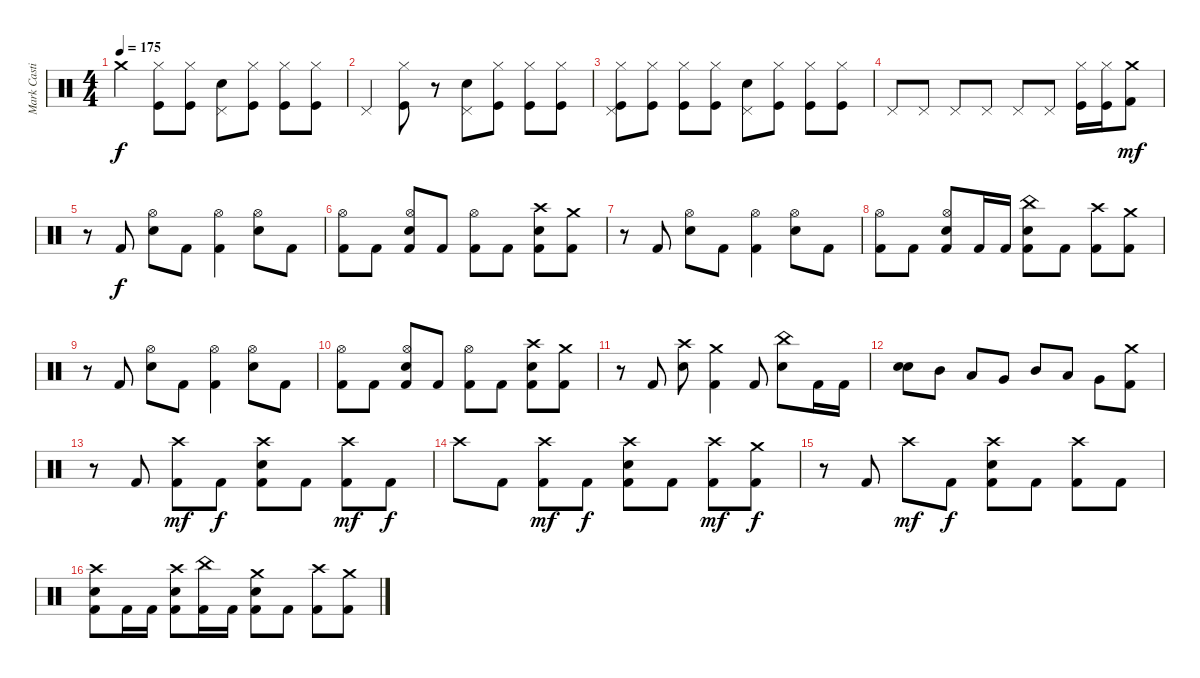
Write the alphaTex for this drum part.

\track ("Mark Castillo" "Mark Casti") {instrument percussion}
\staff {score}
\articulation defaults
\ts (4 4)
\tempo 175
\clef neutral
\ks c "Crash medium (hit)".4{dy f}
("Hi-Hat (closed)" "Kick (hit)").8 ("Hi-Hat (closed)" "Kick (hit)").8 ("Pedal Hi-Hat (hit)" "Snare (hit) 2").8 ("Hi-Hat (closed)" "Kick (hit)").8 ("Hi-Hat (closed)" "Kick (hit)").8 ("Hi-Hat (closed)" "Kick (hit)").8 |
"Pedal Hi-Hat (hit)".4 ("Hi-Hat (closed)" "Kick (hit)").8 r.8 ("Pedal Hi-Hat (hit)" "Snare (hit) 2").8 ("Hi-Hat (closed)" "Kick (hit)").8 ("Hi-Hat (closed)" "Kick (hit)").8 ("Hi-Hat (closed)" "Kick (hit)").8 |
("Pedal Hi-Hat (hit)" "Hi-Hat (closed)" "Kick (hit)").8 ("Hi-Hat (closed)" "Kick (hit)").8 ("Hi-Hat (closed)" "Kick (hit)").8 ("Hi-Hat (closed)" "Kick (hit)").8 ("Pedal Hi-Hat (hit)" "Snare (hit) 2").8 ("Hi-Hat (closed)" "Kick (hit)").8 ("Hi-Hat (closed)" "Kick (hit)").8 ("Hi-Hat (closed)" "Kick (hit)").8 |
"Pedal Hi-Hat (hit)".8 "Pedal Hi-Hat (hit)".8 "Pedal Hi-Hat (hit)".8 "Pedal Hi-Hat (hit)".8 "Pedal Hi-Hat (hit)".8 "Pedal Hi-Hat (hit)".8 ("Hi-Hat (closed)" "Kick (hit)").16 ("Hi-Hat (closed)" "Kick (hit)").16 ("Crash medium (hit)" "Kick (hit) 2").8{dy mf} |
r.8 "Kick (hit) 2".8{dy f} ("Hi-Hat (open)" "Electric Snare (hit)").8 "Kick (hit) 2".8 ("Hi-Hat (open)" "Kick (hit) 2").4 ("Hi-Hat (open)" "Electric Snare (hit)").8 "Kick (hit) 2".8 |
("Hi-Hat (open)" "Kick (hit) 2").8 "Kick (hit) 2".8 ("Hi-Hat (open)" "Electric Snare (hit)" "Kick (hit) 2").8 "Kick (hit) 2".8 ("Hi-Hat (open)" "Kick (hit) 2").8 "Kick (hit) 2".8 ("Crash high (hit)" "Electric Snare (hit)" "Kick (hit) 2").8 ("Crash medium (hit)" "Kick (hit) 2").8 |
r.8 "Kick (hit) 2".8 ("Hi-Hat (open)" "Electric Snare (hit)").8 "Kick (hit) 2".8 ("Hi-Hat (open)" "Kick (hit) 2").4 ("Hi-Hat (open)" "Electric Snare (hit)").8 "Kick (hit) 2".8 |
("Hi-Hat (open)" "Kick (hit) 2").8 "Kick (hit) 2".8 ("Hi-Hat (open)" "Electric Snare (hit)" "Kick (hit) 2").8 "Kick (hit) 2".16 "Kick (hit) 2".16 ("China (hit)" "Electric Snare (hit)" "Kick (hit) 2").8 "Kick (hit) 2".8 ("Crash high (hit)" "Kick (hit) 2").8 ("Crash medium (hit)" "Kick (hit) 2").8 |
r.8 "Kick (hit) 2".8 ("Hi-Hat (open)" "Electric Snare (hit)").8 "Kick (hit) 2".8 ("Hi-Hat (open)" "Kick (hit) 2").4 ("Hi-Hat (open)" "Electric Snare (hit)").8 "Kick (hit) 2".8 |
("Hi-Hat (open)" "Kick (hit) 2").8 "Kick (hit) 2".8 ("Hi-Hat (open)" "Electric Snare (hit)" "Kick (hit) 2").8 "Kick (hit) 2".8 ("Hi-Hat (open)" "Kick (hit) 2").8 "Kick (hit) 2".8 ("Crash high (hit)" "Electric Snare (hit)" "Kick (hit) 2").8 ("Crash medium (hit)" "Kick (hit) 2").8 |
r.8 "Kick (hit) 2".8 ("Crash high (hit)" "Electric Snare (hit)").8 ("Crash medium (hit)" "Kick (hit) 2").4 "Kick (hit) 2".8 ("China (hit)" "Electric Snare (hit)").8 "Kick (hit) 2".16 "Kick (hit) 2".16 |
("Electric Snare (hit)" "Electric Snare (hit)").8{bd 120} "Mid Tom (hit)".8 "Low Tom (hit)".8 "Very Low Tom (hit)".8 "Mid Tom (hit)".8 "Low Tom (hit)".8 "Very Low Tom (hit)".8 ("Crash medium (hit)" "Kick (hit) 2").8 |
r.8 "Kick (hit) 2".8 ("Crash high (hit)" "Kick (hit) 2").8{dy mf} "Kick (hit) 2".8{dy f} ("Crash high (hit)" "Electric Snare (hit)" "Kick (hit) 2").8 "Kick (hit) 2".8 ("Crash high (hit)" "Kick (hit) 2").8{dy mf} "Kick (hit) 2".8{dy f} |
"Crash high (hit)".8 "Kick (hit) 2".8 ("Crash high (hit)" "Kick (hit) 2").8{dy mf} "Kick (hit) 2".8{dy f} ("Crash high (hit)" "Electric Snare (hit)" "Kick (hit) 2").8 "Kick (hit) 2".8 ("Crash high (hit)" "Kick (hit) 2").8{dy mf} ("Crash medium (hit)" "Kick (hit) 2").8{dy f} |
r.8 "Kick (hit) 2".8 "Crash high (hit)".8{dy mf} "Kick (hit) 2".8{dy f} ("Crash high (hit)" "Electric Snare (hit)" "Kick (hit) 2").8 "Kick (hit) 2".8 ("Crash high (hit)" "Kick (hit) 2").8 "Kick (hit) 2".8 |
("Crash high (hit)" "Electric Snare (hit)" "Kick (hit) 2").8 "Kick (hit) 2".16 "Kick (hit) 2".16 ("Crash high (hit)" "Electric Snare (hit)" "Kick (hit) 2").8 ("China (hit)" "Kick (hit) 2").16 "Kick (hit) 2".16 ("Crash medium (hit)" "Electric Snare (hit)" "Kick (hit) 2").8 "Kick (hit) 2".8 ("Crash high (hit)" "Kick (hit) 2").8 ("Crash medium (hit)" "Kick (hit) 2").8
